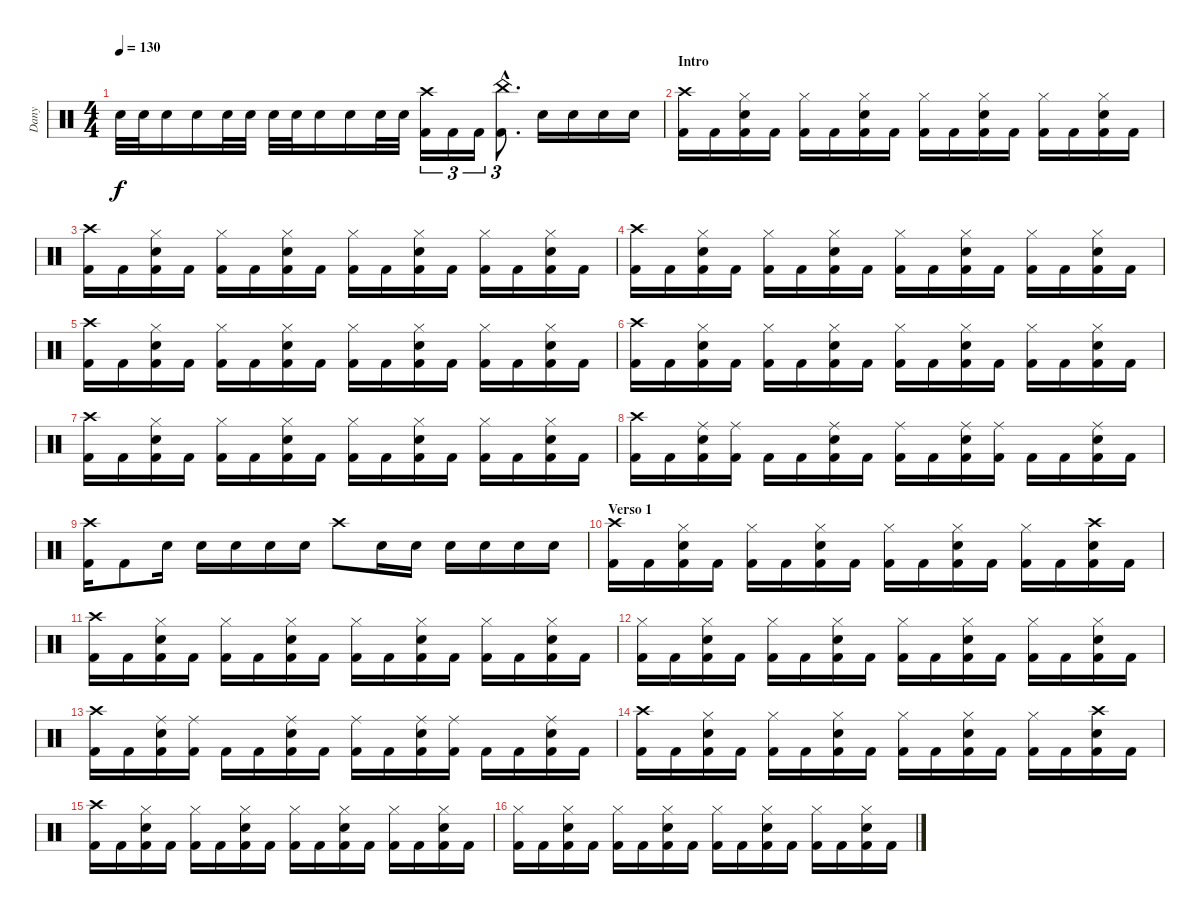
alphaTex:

\track ("Dany" "Dany") {instrument percussion}
\staff {score}
\articulation defaults
\ts (4 4)
\tempo 130
\clef neutral
\ks c "Electric Snare (hit)".32{dy f volume 4} "Electric Snare (hit)".32 "Electric Snare (hit)".16{volume 13} "Electric Snare (hit)".16 "Electric Snare (hit)".32{volume 4} "Electric Snare (hit)".32 "Electric Snare (hit)".32 "Electric Snare (hit)".32 "Electric Snare (hit)".16{volume 13} "Electric Snare (hit)".16 "Electric Snare (hit)".32{volume 4} "Electric Snare (hit)".32
("Crash high (hit)" "Kick (hit) 2").16{tu (3 2) volume 13} "Kick (hit) 2".16{tu (3 2)} "Kick (hit) 2".16{tu (3 2)} ("China (hit)"{hac} "Kick (hit) 2"{hac}).8{d tu (3 2)} "Electric Snare (hit)".16 "Electric Snare (hit)".16 "Electric Snare (hit)".16 "Electric Snare (hit)".16 |
\section ("" "Intro")
("Kick (hit) 2" "Crash high (hit)").16 "Kick (hit) 2".16 ("Kick (hit) 2" "Electric Snare (hit)" "Hi-Hat (closed)").16 "Kick (hit) 2".16 ("Kick (hit) 2" "Hi-Hat (closed)").16 "Kick (hit) 2".16 ("Kick (hit) 2" "Electric Snare (hit)" "Hi-Hat (closed)").16 "Kick (hit) 2".16 ("Kick (hit) 2" "Hi-Hat (closed)").16 "Kick (hit) 2".16 ("Kick (hit) 2" "Electric Snare (hit)" "Hi-Hat (closed)").16 "Kick (hit) 2".16 ("Kick (hit) 2" "Hi-Hat (closed)").16 "Kick (hit) 2".16 ("Kick (hit) 2" "Electric Snare (hit)" "Hi-Hat (closed)").16 "Kick (hit) 2".16 |
("Kick (hit) 2" "Crash high (hit)").16 "Kick (hit) 2".16 ("Kick (hit) 2" "Electric Snare (hit)" "Hi-Hat (closed)").16 "Kick (hit) 2".16 ("Kick (hit) 2" "Hi-Hat (closed)").16 "Kick (hit) 2".16 ("Kick (hit) 2" "Electric Snare (hit)" "Hi-Hat (closed)").16 "Kick (hit) 2".16 ("Kick (hit) 2" "Hi-Hat (closed)").16 "Kick (hit) 2".16 ("Kick (hit) 2" "Electric Snare (hit)" "Hi-Hat (closed)").16 "Kick (hit) 2".16 ("Kick (hit) 2" "Hi-Hat (closed)").16 "Kick (hit) 2".16 ("Kick (hit) 2" "Electric Snare (hit)" "Hi-Hat (closed)").16 "Kick (hit) 2".16 |
("Kick (hit) 2" "Crash high (hit)").16 "Kick (hit) 2".16 ("Kick (hit) 2" "Electric Snare (hit)" "Hi-Hat (closed)").16 "Kick (hit) 2".16 ("Kick (hit) 2" "Hi-Hat (closed)").16 "Kick (hit) 2".16 ("Kick (hit) 2" "Electric Snare (hit)" "Hi-Hat (closed)").16 "Kick (hit) 2".16 ("Kick (hit) 2" "Hi-Hat (closed)").16 "Kick (hit) 2".16 ("Kick (hit) 2" "Electric Snare (hit)" "Hi-Hat (closed)").16 "Kick (hit) 2".16 ("Kick (hit) 2" "Hi-Hat (closed)").16 "Kick (hit) 2".16 ("Kick (hit) 2" "Electric Snare (hit)" "Hi-Hat (closed)").16 "Kick (hit) 2".16 |
("Kick (hit) 2" "Crash high (hit)").16 "Kick (hit) 2".16 ("Kick (hit) 2" "Electric Snare (hit)" "Hi-Hat (closed)").16 "Kick (hit) 2".16 ("Kick (hit) 2" "Hi-Hat (closed)").16 "Kick (hit) 2".16 ("Kick (hit) 2" "Electric Snare (hit)" "Hi-Hat (closed)").16 "Kick (hit) 2".16 ("Kick (hit) 2" "Hi-Hat (closed)").16 "Kick (hit) 2".16 ("Kick (hit) 2" "Electric Snare (hit)" "Hi-Hat (closed)").16 "Kick (hit) 2".16 ("Kick (hit) 2" "Hi-Hat (closed)").16 "Kick (hit) 2".16 ("Kick (hit) 2" "Electric Snare (hit)" "Hi-Hat (closed)").16 "Kick (hit) 2".16 |
("Kick (hit) 2" "Crash high (hit)").16 "Kick (hit) 2".16 ("Kick (hit) 2" "Electric Snare (hit)" "Hi-Hat (closed)").16 "Kick (hit) 2".16 ("Kick (hit) 2" "Hi-Hat (closed)").16 "Kick (hit) 2".16 ("Kick (hit) 2" "Electric Snare (hit)" "Hi-Hat (closed)").16 "Kick (hit) 2".16 ("Kick (hit) 2" "Hi-Hat (closed)").16 "Kick (hit) 2".16 ("Kick (hit) 2" "Electric Snare (hit)" "Hi-Hat (closed)").16 "Kick (hit) 2".16 ("Kick (hit) 2" "Hi-Hat (closed)").16 "Kick (hit) 2".16 ("Kick (hit) 2" "Electric Snare (hit)" "Hi-Hat (closed)").16 "Kick (hit) 2".16 |
("Kick (hit) 2" "Crash high (hit)").16 "Kick (hit) 2".16 ("Kick (hit) 2" "Electric Snare (hit)" "Hi-Hat (closed)").16 "Kick (hit) 2".16 ("Kick (hit) 2" "Hi-Hat (closed)").16 "Kick (hit) 2".16 ("Kick (hit) 2" "Electric Snare (hit)" "Hi-Hat (closed)").16 "Kick (hit) 2".16 ("Kick (hit) 2" "Hi-Hat (closed)").16 "Kick (hit) 2".16 ("Kick (hit) 2" "Electric Snare (hit)" "Hi-Hat (closed)").16 "Kick (hit) 2".16 ("Kick (hit) 2" "Hi-Hat (closed)").16 "Kick (hit) 2".16 ("Kick (hit) 2" "Electric Snare (hit)" "Hi-Hat (closed)").16 "Kick (hit) 2".16 |
("Kick (hit) 2" "Crash high (hit)").16 "Kick (hit) 2".16 ("Kick (hit) 2" "Electric Snare (hit)" "Ride (middle)").16 ("Kick (hit) 2" "Ride (middle)").16 "Kick (hit) 2".16 "Kick (hit) 2".16 ("Kick (hit) 2" "Electric Snare (hit)" "Ride (middle)").16 "Kick (hit) 2".16 ("Kick (hit) 2" "Ride (middle)").16 "Kick (hit) 2".16 ("Kick (hit) 2" "Electric Snare (hit)" "Ride (middle)").16 ("Kick (hit) 2" "Ride (middle)").16 "Kick (hit) 2".16 "Kick (hit) 2".16 ("Kick (hit) 2" "Electric Snare (hit)" "Ride (middle)").16 "Kick (hit) 2".16 |
("Kick (hit) 2" "Crash high (hit)").16 "Kick (hit) 2".8 "Electric Snare (hit)".16 "Electric Snare (hit)".16 "Electric Snare (hit)".16 "Electric Snare (hit)".16 "Electric Snare (hit)".16 "Crash high (hit)".8 "Electric Snare (hit)".16 "Electric Snare (hit)".16 "Electric Snare (hit)".16 "Electric Snare (hit)".16 "Electric Snare (hit)".16 "Electric Snare (hit)".16 |
\section ("" "Verso 1")
("Kick (hit) 2" "Crash high (hit)").16 "Kick (hit) 2".16 ("Kick (hit) 2" "Electric Snare (hit)" "Hi-Hat (closed)").16 "Kick (hit) 2".16 ("Kick (hit) 2" "Hi-Hat (closed)").16 "Kick (hit) 2".16 ("Kick (hit) 2" "Electric Snare (hit)" "Hi-Hat (closed)").16 "Kick (hit) 2".16 ("Kick (hit) 2" "Hi-Hat (closed)").16 "Kick (hit) 2".16 ("Kick (hit) 2" "Electric Snare (hit)" "Hi-Hat (closed)").16 "Kick (hit) 2".16 ("Kick (hit) 2" "Hi-Hat (closed)").16 "Kick (hit) 2".16 ("Kick (hit) 2" "Electric Snare (hit)" "Crash high (hit)").16 "Kick (hit) 2".16 |
("Kick (hit) 2" "Crash high (hit)").16 "Kick (hit) 2".16 ("Kick (hit) 2" "Electric Snare (hit)" "Hi-Hat (closed)").16 "Kick (hit) 2".16 ("Kick (hit) 2" "Hi-Hat (closed)").16 "Kick (hit) 2".16 ("Kick (hit) 2" "Electric Snare (hit)" "Hi-Hat (closed)").16 "Kick (hit) 2".16 ("Kick (hit) 2" "Hi-Hat (closed)").16 "Kick (hit) 2".16 ("Kick (hit) 2" "Electric Snare (hit)" "Hi-Hat (closed)").16 "Kick (hit) 2".16 ("Kick (hit) 2" "Hi-Hat (closed)").16 "Kick (hit) 2".16 ("Kick (hit) 2" "Electric Snare (hit)" "Hi-Hat (closed)").16 "Kick (hit) 2".16 |
("Kick (hit) 2" "Hi-Hat (closed)").16 "Kick (hit) 2".16 ("Kick (hit) 2" "Electric Snare (hit)" "Hi-Hat (closed)").16 "Kick (hit) 2".16 ("Kick (hit) 2" "Hi-Hat (closed)").16 "Kick (hit) 2".16 ("Kick (hit) 2" "Electric Snare (hit)" "Hi-Hat (closed)").16 "Kick (hit) 2".16 ("Kick (hit) 2" "Hi-Hat (closed)").16 "Kick (hit) 2".16 ("Kick (hit) 2" "Electric Snare (hit)" "Hi-Hat (closed)").16 "Kick (hit) 2".16 ("Kick (hit) 2" "Hi-Hat (closed)").16 "Kick (hit) 2".16 ("Kick (hit) 2" "Electric Snare (hit)" "Hi-Hat (closed)").16 "Kick (hit) 2".16 |
("Kick (hit) 2" "Crash high (hit)").16 "Kick (hit) 2".16 ("Kick (hit) 2" "Electric Snare (hit)" "Ride (middle)").16 ("Kick (hit) 2" "Ride (middle)").16 "Kick (hit) 2".16 "Kick (hit) 2".16 ("Kick (hit) 2" "Electric Snare (hit)" "Ride (middle)").16 "Kick (hit) 2".16 ("Kick (hit) 2" "Ride (middle)").16 "Kick (hit) 2".16 ("Kick (hit) 2" "Electric Snare (hit)" "Ride (middle)").16 ("Kick (hit) 2" "Ride (middle)").16 "Kick (hit) 2".16 "Kick (hit) 2".16 ("Kick (hit) 2" "Electric Snare (hit)" "Ride (middle)").16 "Kick (hit) 2".16 |
("Kick (hit) 2" "Crash high (hit)").16 "Kick (hit) 2".16 ("Kick (hit) 2" "Electric Snare (hit)" "Hi-Hat (closed)").16 "Kick (hit) 2".16 ("Kick (hit) 2" "Hi-Hat (closed)").16 "Kick (hit) 2".16 ("Kick (hit) 2" "Electric Snare (hit)" "Hi-Hat (closed)").16 "Kick (hit) 2".16 ("Kick (hit) 2" "Hi-Hat (closed)").16 "Kick (hit) 2".16 ("Kick (hit) 2" "Electric Snare (hit)" "Hi-Hat (closed)").16 "Kick (hit) 2".16 ("Kick (hit) 2" "Hi-Hat (closed)").16 "Kick (hit) 2".16 ("Kick (hit) 2" "Electric Snare (hit)" "Crash high (hit)").16 "Kick (hit) 2".16 |
("Kick (hit) 2" "Crash high (hit)").16 "Kick (hit) 2".16 ("Kick (hit) 2" "Electric Snare (hit)" "Hi-Hat (closed)").16 "Kick (hit) 2".16 ("Kick (hit) 2" "Hi-Hat (closed)").16 "Kick (hit) 2".16 ("Kick (hit) 2" "Electric Snare (hit)" "Hi-Hat (closed)").16 "Kick (hit) 2".16 ("Kick (hit) 2" "Hi-Hat (closed)").16 "Kick (hit) 2".16 ("Kick (hit) 2" "Electric Snare (hit)" "Hi-Hat (closed)").16 "Kick (hit) 2".16 ("Kick (hit) 2" "Hi-Hat (closed)").16 "Kick (hit) 2".16 ("Kick (hit) 2" "Electric Snare (hit)" "Hi-Hat (closed)").16 "Kick (hit) 2".16 |
("Kick (hit) 2" "Hi-Hat (closed)").16 "Kick (hit) 2".16 ("Kick (hit) 2" "Electric Snare (hit)" "Hi-Hat (closed)").16 "Kick (hit) 2".16 ("Kick (hit) 2" "Hi-Hat (closed)").16 "Kick (hit) 2".16 ("Kick (hit) 2" "Electric Snare (hit)" "Hi-Hat (closed)").16 "Kick (hit) 2".16 ("Kick (hit) 2" "Hi-Hat (closed)").16 "Kick (hit) 2".16 ("Kick (hit) 2" "Electric Snare (hit)" "Hi-Hat (closed)").16 "Kick (hit) 2".16 ("Kick (hit) 2" "Hi-Hat (closed)").16 "Kick (hit) 2".16 ("Kick (hit) 2" "Electric Snare (hit)" "Hi-Hat (closed)").16 "Kick (hit) 2".16
